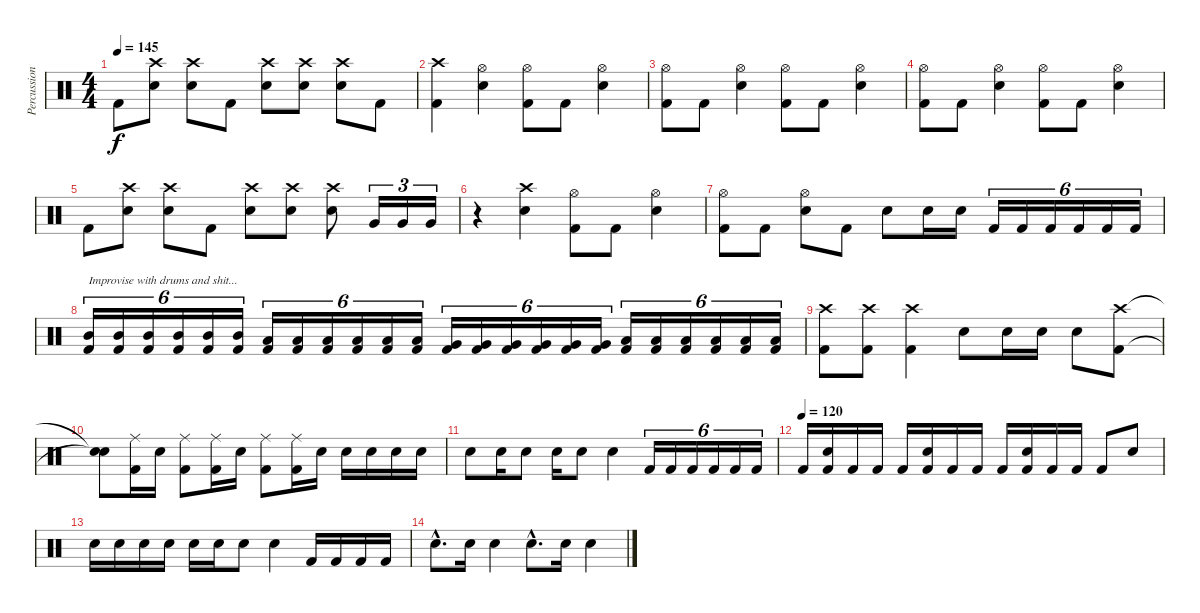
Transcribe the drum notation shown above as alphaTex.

\track ("Percussion" "Percussion") {instrument percussion}
\staff {score}
\articulation defaults
\ts (4 4)
\tempo 145
\clef neutral
\ks c "Kick (hit) 2".8{dy f}
("Crash high (hit)" "Electric Snare (hit)").8 ("Crash high (hit)" "Electric Snare (hit)").8 "Kick (hit) 2".8 ("Crash high (hit)" "Electric Snare (hit)").8 ("Crash high (hit)" "Electric Snare (hit)").8 ("Crash high (hit)" "Electric Snare (hit)").8 "Kick (hit) 2".8 |
("Crash high (hit)" "Kick (hit) 2").4 ("Hi-Hat (open)" "Electric Snare (hit)").4 ("Hi-Hat (open)" "Kick (hit) 2").8 "Kick (hit) 2".8 ("Hi-Hat (open)" "Electric Snare (hit)").4 |
("Hi-Hat (open)" "Kick (hit) 2").8 "Kick (hit) 2".8 ("Hi-Hat (open)" "Electric Snare (hit)").4 ("Hi-Hat (open)" "Kick (hit) 2").8 "Kick (hit) 2".8 ("Hi-Hat (open)" "Electric Snare (hit)").4 |
("Hi-Hat (open)" "Kick (hit) 2").8 "Kick (hit) 2".8 ("Hi-Hat (open)" "Electric Snare (hit)").4 ("Hi-Hat (open)" "Kick (hit) 2").8 "Kick (hit) 2".8 ("Hi-Hat (open)" "Electric Snare (hit)").4 |
"Kick (hit) 2".8 ("Crash high (hit)" "Electric Snare (hit)").8 ("Crash high (hit)" "Electric Snare (hit)").8 "Kick (hit) 2".8 ("Crash high (hit)" "Electric Snare (hit)").8 ("Crash high (hit)" "Electric Snare (hit)").8 ("Crash high (hit)" "Electric Snare (hit)").8 "Very Low Tom (hit)".16{tu (3 2)} "Very Low Tom (hit)".16{tu (3 2)} "Very Low Tom (hit)".16{tu (3 2)} |
r.4 ("Crash high (hit)" "Electric Snare (hit)").4 ("Hi-Hat (open)" "Kick (hit) 2").8 "Kick (hit) 2".8 ("Hi-Hat (open)" "Electric Snare (hit)").4 |
("Hi-Hat (open)" "Kick (hit) 2").8 "Kick (hit) 2".8 ("Hi-Hat (open)" "Electric Snare (hit)").8 "Kick (hit) 2".8 "Electric Snare (hit)".8 "Electric Snare (hit)".16 "Electric Snare (hit)".16 "Kick (hit) 2".16{tu (6 4)} "Kick (hit) 2".16{tu (6 4)} "Kick (hit) 2".16{tu (6 4)} "Kick (hit) 2".16{tu (6 4)} "Kick (hit) 2".16{tu (6 4)} "Kick (hit) 2".16{tu (6 4)} |
("Mid Tom (hit)" "Kick (hit) 2").16{tu (6 4) txt "Improvise with drums and shit..."} ("Mid Tom (hit)" "Kick (hit) 2").16{tu (6 4)} ("Mid Tom (hit)" "Kick (hit) 2").16{tu (6 4)} ("Mid Tom (hit)" "Kick (hit) 2").16{tu (6 4)} ("Mid Tom (hit)" "Kick (hit) 2").16{tu (6 4)} ("Mid Tom (hit)" "Kick (hit) 2").16{tu (6 4)} ("Low Tom (hit)" "Kick (hit) 2").16{tu (6 4)} ("Low Tom (hit)" "Kick (hit) 2").16{tu (6 4)} ("Low Tom (hit)" "Kick (hit) 2").16{tu (6 4)} ("Low Tom (hit)" "Kick (hit) 2").16{tu (6 4)} ("Low Tom (hit)" "Kick (hit) 2").16{tu (6 4)} ("Low Tom (hit)" "Kick (hit) 2").16{tu (6 4)} ("Very Low Tom (hit)" "Kick (hit) 2").16{tu (6 4)} ("Very Low Tom (hit)" "Kick (hit) 2").16{tu (6 4)} ("Very Low Tom (hit)" "Kick (hit) 2").16{tu (6 4)} ("Very Low Tom (hit)" "Kick (hit) 2").16{tu (6 4)} ("Very Low Tom (hit)" "Kick (hit) 2").16{tu (6 4)} ("Very Low Tom (hit)" "Kick (hit) 2").16{tu (6 4)} ("Low Floor Tom (hit)" "Kick (hit) 2").16{tu (6 4)} ("Low Floor Tom (hit)" "Kick (hit) 2").16{tu (6 4)} ("Low Floor Tom (hit)" "Kick (hit) 2").16{tu (6 4)} ("Low Floor Tom (hit)" "Kick (hit) 2").16{tu (6 4)} ("Low Floor Tom (hit)" "Kick (hit) 2").16{tu (6 4)} ("Low Floor Tom (hit)" "Kick (hit) 2").16{tu (6 4)} |
("Crash high (hit)" "Kick (hit) 2").8 ("Crash high (hit)" "Kick (hit) 2").8 ("Crash high (hit)" "Kick (hit) 2").4 "Electric Snare (hit)".8 "Electric Snare (hit)".16 "Electric Snare (hit)".16 "Electric Snare (hit)".8 ("Crash high (hit)" "Kick (hit) 2").8 |
("Snare (hit)"{t} "Snare (hit)"{t}).8 ("Ride (middle)" "Kick (hit) 2").16 "Electric Snare (hit)".16 ("Ride (middle)" "Kick (hit) 2").8 ("Ride (middle)" "Kick (hit) 2").16 "Electric Snare (hit)".16 ("Ride (middle)" "Kick (hit) 2").8 ("Ride (middle)" "Kick (hit) 2").16 "Electric Snare (hit)".16 "Electric Snare (hit)".16 "Electric Snare (hit)".16 "Electric Snare (hit)".16 "Electric Snare (hit)".16 |
"Electric Snare (hit)".8 "Electric Snare (hit)".16 "Electric Snare (hit)".8 "Electric Snare (hit)".16 "Electric Snare (hit)".8 "Electric Snare (hit)".4 "Kick (hit) 2".16{tu (6 4)} "Kick (hit) 2".16{tu (6 4)} "Kick (hit) 2".16{tu (6 4)} "Kick (hit) 2".16{tu (6 4)} "Kick (hit) 2".16{tu (6 4)} "Kick (hit) 2".16{tu (6 4)} |
\tempo (120)
"Kick (hit) 2".16 ("Electric Snare (hit)" "Kick (hit) 2").16 "Kick (hit) 2".16 "Kick (hit) 2".16 "Kick (hit) 2".16 ("Electric Snare (hit)" "Kick (hit) 2").16 "Kick (hit) 2".16 "Kick (hit) 2".16 "Kick (hit) 2".16 ("Electric Snare (hit)" "Kick (hit) 2").16 "Kick (hit) 2".16 "Kick (hit) 2".16 "Kick (hit) 2".8 "Electric Snare (hit)".8 |
"Electric Snare (hit)".16 "Electric Snare (hit)".16 "Electric Snare (hit)".16 "Electric Snare (hit)".16 "Electric Snare (hit)".16 "Electric Snare (hit)".16 "Electric Snare (hit)".8 "Electric Snare (hit)".4 "Kick (hit) 2".16 "Kick (hit) 2".16 "Kick (hit) 2".16 "Kick (hit) 2".16 |
"Electric Snare (hit)"{hac}.8{d} "Electric Snare (hit)".16 "Electric Snare (hit)".4 "Electric Snare (hit)"{hac}.8{d} "Electric Snare (hit)".16 "Electric Snare (hit)".4
